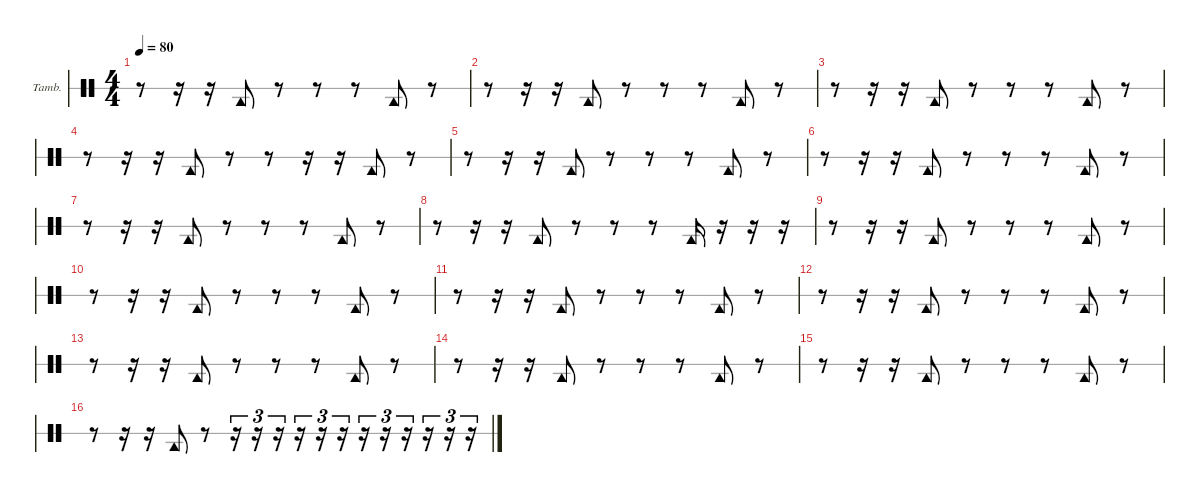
\hideDynamics
\bracketExtendMode nobrackets
\firstSystemTrackNameOrientation horizontal
\otherSystemsTrackNameOrientation horizontal
\track ("Tambourine" "Tamb.") {instrument percussion}
\staff {score 1}
\articulation defaults
\ts (4 4)
\tempo 80
\clef neutral
\ks c
r.8{dy f} r.16 r.16 "Tambourine (hit)".8 r.8 r.8 r.8 "Tambourine (hit)".8 r.8 |
r.8 r.16 r.16 "Tambourine (hit)".8 r.8 r.8 r.8 "Tambourine (hit)".8 r.8 |
r.8 r.16 r.16 "Tambourine (hit)".8 r.8 r.8 r.8 "Tambourine (hit)".8 r.8 |
r.8 r.16 r.16 "Tambourine (hit)".8 r.8 r.8 r.16 r.16 "Tambourine (hit)".8 r.8 |
r.8 r.16 r.16 "Tambourine (hit)".8 r.8 r.8 r.8 "Tambourine (hit)".8 r.8 |
r.8 r.16 r.16 "Tambourine (hit)".8 r.8 r.8 r.8 "Tambourine (hit)".8 r.8 |
r.8 r.16 r.16 "Tambourine (hit)".8 r.8 r.8 r.8 "Tambourine (hit)".8 r.8 |
r.8 r.16 r.16 "Tambourine (hit)".8 r.8 r.8 r.8 "Tambourine (hit)".16 r.16 r.16 r.16 |
r.8 r.16 r.16 "Tambourine (hit)".8 r.8 r.8 r.8 "Tambourine (hit)".8 r.8 |
r.8 r.16 r.16 "Tambourine (hit)".8 r.8 r.8 r.8 "Tambourine (hit)".8 r.8 |
r.8 r.16 r.16 "Tambourine (hit)".8 r.8 r.8 r.8 "Tambourine (hit)".8 r.8 |
r.8 r.16 r.16 "Tambourine (hit)".8 r.8 r.8 r.8 "Tambourine (hit)".8 r.8 |
r.8 r.16 r.16 "Tambourine (hit)".8 r.8 r.8 r.8 "Tambourine (hit)".8 r.8 |
r.8 r.16 r.16 "Tambourine (hit)".8 r.8 r.8 r.8 "Tambourine (hit)".8 r.8 |
r.8 r.16 r.16 "Tambourine (hit)".8 r.8 r.8 r.8 "Tambourine (hit)".8 r.8 |
r.8 r.16 r.16 "Tambourine (hit)".8 r.8 r.16{tu (3 2)} r.16{tu (3 2)} r.16{tu (3 2)} r.16{tu (3 2)} r.16{tu (3 2)} r.16{tu (3 2)} r.16{tu (3 2)} r.16{tu (3 2)} r.16{tu (3 2)} r.16{tu (3 2)} r.16{tu (3 2)} r.16{tu (3 2)}
